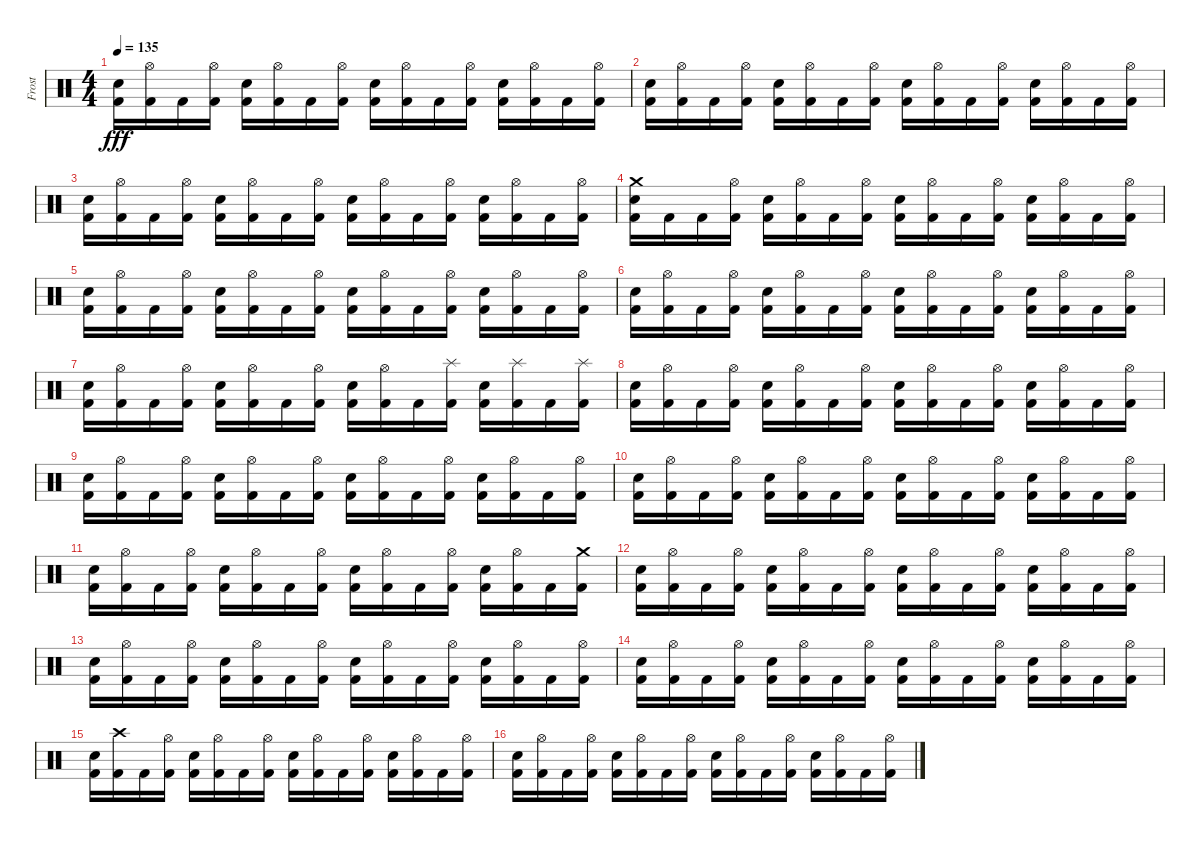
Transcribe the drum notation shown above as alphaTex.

\track ("Frost" "Frost") {instrument percussion}
\staff {score}
\articulation defaults
\ts (4 4)
\tempo 135
\clef neutral
\ks c
("Electric Snare (hit)" "Kick (hit) 2").16{dy fff} ("Hi-Hat (open)" "Kick (hit) 2").16 "Kick (hit) 2".16 ("Hi-Hat (open)" "Kick (hit) 2").16 ("Electric Snare (hit)" "Kick (hit) 2").16 ("Hi-Hat (open)" "Kick (hit) 2").16 "Kick (hit) 2".16 ("Hi-Hat (open)" "Kick (hit) 2").16 ("Electric Snare (hit)" "Kick (hit) 2").16 ("Hi-Hat (open)" "Kick (hit) 2").16 "Kick (hit) 2".16 ("Hi-Hat (open)" "Kick (hit) 2").16 ("Electric Snare (hit)" "Kick (hit) 2").16 ("Hi-Hat (open)" "Kick (hit) 2").16 "Kick (hit) 2".16 ("Hi-Hat (open)" "Kick (hit) 2").16 |
("Electric Snare (hit)" "Kick (hit) 2").16 ("Hi-Hat (open)" "Kick (hit) 2").16 "Kick (hit) 2".16 ("Hi-Hat (open)" "Kick (hit) 2").16 ("Electric Snare (hit)" "Kick (hit) 2").16 ("Hi-Hat (open)" "Kick (hit) 2").16 "Kick (hit) 2".16 ("Hi-Hat (open)" "Kick (hit) 2").16 ("Electric Snare (hit)" "Kick (hit) 2").16 ("Hi-Hat (open)" "Kick (hit) 2").16 "Kick (hit) 2".16 ("Hi-Hat (open)" "Kick (hit) 2").16 ("Electric Snare (hit)" "Kick (hit) 2").16 ("Hi-Hat (open)" "Kick (hit) 2").16 "Kick (hit) 2".16 ("Hi-Hat (open)" "Kick (hit) 2").16 |
("Electric Snare (hit)" "Kick (hit) 2").16 ("Hi-Hat (open)" "Kick (hit) 2").16 "Kick (hit) 2".16 ("Hi-Hat (open)" "Kick (hit) 2").16 ("Electric Snare (hit)" "Kick (hit) 2").16 ("Hi-Hat (open)" "Kick (hit) 2").16 "Kick (hit) 2".16 ("Hi-Hat (open)" "Kick (hit) 2").16 ("Electric Snare (hit)" "Kick (hit) 2").16 ("Hi-Hat (open)" "Kick (hit) 2").16 "Kick (hit) 2".16 ("Hi-Hat (open)" "Kick (hit) 2").16 ("Electric Snare (hit)" "Kick (hit) 2").16 ("Hi-Hat (open)" "Kick (hit) 2").16 "Kick (hit) 2".16 ("Hi-Hat (open)" "Kick (hit) 2").16 |
("Crash medium (hit)" "Electric Snare (hit)" "Kick (hit) 2").16 "Kick (hit) 2".16 "Kick (hit) 2".16 ("Hi-Hat (open)" "Kick (hit) 2").16 ("Electric Snare (hit)" "Kick (hit) 2").16 ("Hi-Hat (open)" "Kick (hit) 2").16 "Kick (hit) 2".16 ("Hi-Hat (open)" "Kick (hit) 2").16 ("Electric Snare (hit)" "Kick (hit) 2").16 ("Hi-Hat (open)" "Kick (hit) 2").16 "Kick (hit) 2".16 ("Hi-Hat (open)" "Kick (hit) 2").16 ("Electric Snare (hit)" "Kick (hit) 2").16 ("Hi-Hat (open)" "Kick (hit) 2").16 "Kick (hit) 2".16 ("Hi-Hat (open)" "Kick (hit) 2").16 |
("Electric Snare (hit)" "Kick (hit) 2").16 ("Hi-Hat (open)" "Kick (hit) 2").16 "Kick (hit) 2".16 ("Hi-Hat (open)" "Kick (hit) 2").16 ("Electric Snare (hit)" "Kick (hit) 2").16 ("Hi-Hat (open)" "Kick (hit) 2").16 "Kick (hit) 2".16 ("Hi-Hat (open)" "Kick (hit) 2").16 ("Electric Snare (hit)" "Kick (hit) 2").16 ("Hi-Hat (open)" "Kick (hit) 2").16 "Kick (hit) 2".16 ("Hi-Hat (open)" "Kick (hit) 2").16 ("Electric Snare (hit)" "Kick (hit) 2").16 ("Hi-Hat (open)" "Kick (hit) 2").16 "Kick (hit) 2".16 ("Hi-Hat (open)" "Kick (hit) 2").16 |
("Electric Snare (hit)" "Kick (hit) 2").16 ("Hi-Hat (open)" "Kick (hit) 2").16 "Kick (hit) 2".16 ("Hi-Hat (open)" "Kick (hit) 2").16 ("Electric Snare (hit)" "Kick (hit) 2").16 ("Hi-Hat (open)" "Kick (hit) 2").16 "Kick (hit) 2".16 ("Hi-Hat (open)" "Kick (hit) 2").16 ("Electric Snare (hit)" "Kick (hit) 2").16 ("Hi-Hat (open)" "Kick (hit) 2").16 "Kick (hit) 2".16 ("Hi-Hat (open)" "Kick (hit) 2").16 ("Electric Snare (hit)" "Kick (hit) 2").16 ("Hi-Hat (open)" "Kick (hit) 2").16 "Kick (hit) 2".16 ("Hi-Hat (open)" "Kick (hit) 2").16 |
("Electric Snare (hit)" "Kick (hit) 2").16 ("Hi-Hat (open)" "Kick (hit) 2").16 "Kick (hit) 2".16 ("Hi-Hat (open)" "Kick (hit) 2").16 ("Electric Snare (hit)" "Kick (hit) 2").16 ("Hi-Hat (open)" "Kick (hit) 2").16 "Kick (hit) 2".16 ("Hi-Hat (open)" "Kick (hit) 2").16 ("Electric Snare (hit)" "Kick (hit) 2").16 ("Hi-Hat (open)" "Kick (hit) 2").16 "Kick (hit) 2".16 ("Splash (hit)" "Kick (hit) 2").16 ("Electric Snare (hit)" "Kick (hit) 2").16 ("Splash (hit)" "Kick (hit) 2").16 "Kick (hit) 2".16 ("Splash (hit)" "Kick (hit) 2").16 |
("Electric Snare (hit)" "Kick (hit) 2").16 ("Hi-Hat (open)" "Kick (hit) 2").16 "Kick (hit) 2".16 ("Hi-Hat (open)" "Kick (hit) 2").16 ("Electric Snare (hit)" "Kick (hit) 2").16 ("Hi-Hat (open)" "Kick (hit) 2").16 "Kick (hit) 2".16 ("Hi-Hat (open)" "Kick (hit) 2").16 ("Electric Snare (hit)" "Kick (hit) 2").16 ("Hi-Hat (open)" "Kick (hit) 2").16 "Kick (hit) 2".16 ("Hi-Hat (open)" "Kick (hit) 2").16 ("Electric Snare (hit)" "Kick (hit) 2").16 ("Hi-Hat (open)" "Kick (hit) 2").16 "Kick (hit) 2".16 ("Hi-Hat (open)" "Kick (hit) 2").16 |
("Electric Snare (hit)" "Kick (hit) 2").16 ("Hi-Hat (open)" "Kick (hit) 2").16 "Kick (hit) 2".16 ("Hi-Hat (open)" "Kick (hit) 2").16 ("Electric Snare (hit)" "Kick (hit) 2").16 ("Hi-Hat (open)" "Kick (hit) 2").16 "Kick (hit) 2".16 ("Hi-Hat (open)" "Kick (hit) 2").16 ("Electric Snare (hit)" "Kick (hit) 2").16 ("Hi-Hat (open)" "Kick (hit) 2").16 "Kick (hit) 2".16 ("Hi-Hat (open)" "Kick (hit) 2").16 ("Electric Snare (hit)" "Kick (hit) 2").16 ("Hi-Hat (open)" "Kick (hit) 2").16 "Kick (hit) 2".16 ("Hi-Hat (open)" "Kick (hit) 2").16 |
("Electric Snare (hit)" "Kick (hit) 2").16 ("Hi-Hat (open)" "Kick (hit) 2").16 "Kick (hit) 2".16 ("Hi-Hat (open)" "Kick (hit) 2").16 ("Electric Snare (hit)" "Kick (hit) 2").16 ("Hi-Hat (open)" "Kick (hit) 2").16 "Kick (hit) 2".16 ("Hi-Hat (open)" "Kick (hit) 2").16 ("Electric Snare (hit)" "Kick (hit) 2").16 ("Hi-Hat (open)" "Kick (hit) 2").16 "Kick (hit) 2".16 ("Hi-Hat (open)" "Kick (hit) 2").16 ("Electric Snare (hit)" "Kick (hit) 2").16 ("Hi-Hat (open)" "Kick (hit) 2").16 "Kick (hit) 2".16 ("Hi-Hat (open)" "Kick (hit) 2").16 |
("Electric Snare (hit)" "Kick (hit) 2").16 ("Hi-Hat (open)" "Kick (hit) 2").16 "Kick (hit) 2".16 ("Hi-Hat (open)" "Kick (hit) 2").16 ("Electric Snare (hit)" "Kick (hit) 2").16 ("Hi-Hat (open)" "Kick (hit) 2").16 "Kick (hit) 2".16 ("Hi-Hat (open)" "Kick (hit) 2").16 ("Electric Snare (hit)" "Kick (hit) 2").16 ("Hi-Hat (open)" "Kick (hit) 2").16 "Kick (hit) 2".16 ("Hi-Hat (open)" "Kick (hit) 2").16 ("Electric Snare (hit)" "Kick (hit) 2").16 ("Hi-Hat (open)" "Kick (hit) 2").16 "Kick (hit) 2".16 ("Crash medium (hit)" "Kick (hit) 2").16 |
("Electric Snare (hit)" "Kick (hit) 2").16 ("Hi-Hat (open)" "Kick (hit) 2").16 "Kick (hit) 2".16 ("Hi-Hat (open)" "Kick (hit) 2").16 ("Electric Snare (hit)" "Kick (hit) 2").16 ("Hi-Hat (open)" "Kick (hit) 2").16 "Kick (hit) 2".16 ("Hi-Hat (open)" "Kick (hit) 2").16 ("Electric Snare (hit)" "Kick (hit) 2").16 ("Hi-Hat (open)" "Kick (hit) 2").16 "Kick (hit) 2".16 ("Hi-Hat (open)" "Kick (hit) 2").16 ("Electric Snare (hit)" "Kick (hit) 2").16 ("Hi-Hat (open)" "Kick (hit) 2").16 "Kick (hit) 2".16 ("Hi-Hat (open)" "Kick (hit) 2").16 |
("Electric Snare (hit)" "Kick (hit) 2").16 ("Hi-Hat (open)" "Kick (hit) 2").16 "Kick (hit) 2".16 ("Hi-Hat (open)" "Kick (hit) 2").16 ("Electric Snare (hit)" "Kick (hit) 2").16 ("Hi-Hat (open)" "Kick (hit) 2").16 "Kick (hit) 2".16 ("Hi-Hat (open)" "Kick (hit) 2").16 ("Electric Snare (hit)" "Kick (hit) 2").16 ("Hi-Hat (open)" "Kick (hit) 2").16 "Kick (hit) 2".16 ("Hi-Hat (open)" "Kick (hit) 2").16 ("Electric Snare (hit)" "Kick (hit) 2").16 ("Hi-Hat (open)" "Kick (hit) 2").16 "Kick (hit) 2".16 ("Hi-Hat (open)" "Kick (hit) 2").16 |
("Electric Snare (hit)" "Kick (hit) 2").16 ("Hi-Hat (open)" "Kick (hit) 2").16 "Kick (hit) 2".16 ("Hi-Hat (open)" "Kick (hit) 2").16 ("Electric Snare (hit)" "Kick (hit) 2").16 ("Hi-Hat (open)" "Kick (hit) 2").16 "Kick (hit) 2".16 ("Hi-Hat (open)" "Kick (hit) 2").16 ("Electric Snare (hit)" "Kick (hit) 2").16 ("Hi-Hat (open)" "Kick (hit) 2").16 "Kick (hit) 2".16 ("Hi-Hat (open)" "Kick (hit) 2").16 ("Electric Snare (hit)" "Kick (hit) 2").16 ("Hi-Hat (open)" "Kick (hit) 2").16 "Kick (hit) 2".16 ("Hi-Hat (open)" "Kick (hit) 2").16 |
("Electric Snare (hit)" "Kick (hit) 2").16 ("Crash high (hit)" "Kick (hit) 2").16 "Kick (hit) 2".16 ("Hi-Hat (open)" "Kick (hit) 2").16 ("Electric Snare (hit)" "Kick (hit) 2").16 ("Hi-Hat (open)" "Kick (hit) 2").16 "Kick (hit) 2".16 ("Hi-Hat (open)" "Kick (hit) 2").16 ("Electric Snare (hit)" "Kick (hit) 2").16 ("Hi-Hat (open)" "Kick (hit) 2").16 "Kick (hit) 2".16 ("Hi-Hat (open)" "Kick (hit) 2").16 ("Electric Snare (hit)" "Kick (hit) 2").16 ("Hi-Hat (open)" "Kick (hit) 2").16 "Kick (hit) 2".16 ("Hi-Hat (open)" "Kick (hit) 2").16 |
("Electric Snare (hit)" "Kick (hit) 2").16 ("Hi-Hat (open)" "Kick (hit) 2").16 "Kick (hit) 2".16 ("Hi-Hat (open)" "Kick (hit) 2").16 ("Electric Snare (hit)" "Kick (hit) 2").16 ("Hi-Hat (open)" "Kick (hit) 2").16 "Kick (hit) 2".16 ("Hi-Hat (open)" "Kick (hit) 2").16 ("Electric Snare (hit)" "Kick (hit) 2").16 ("Hi-Hat (open)" "Kick (hit) 2").16 "Kick (hit) 2".16 ("Hi-Hat (open)" "Kick (hit) 2").16 ("Electric Snare (hit)" "Kick (hit) 2").16 ("Hi-Hat (open)" "Kick (hit) 2").16 "Kick (hit) 2".16 ("Hi-Hat (open)" "Kick (hit) 2").16
